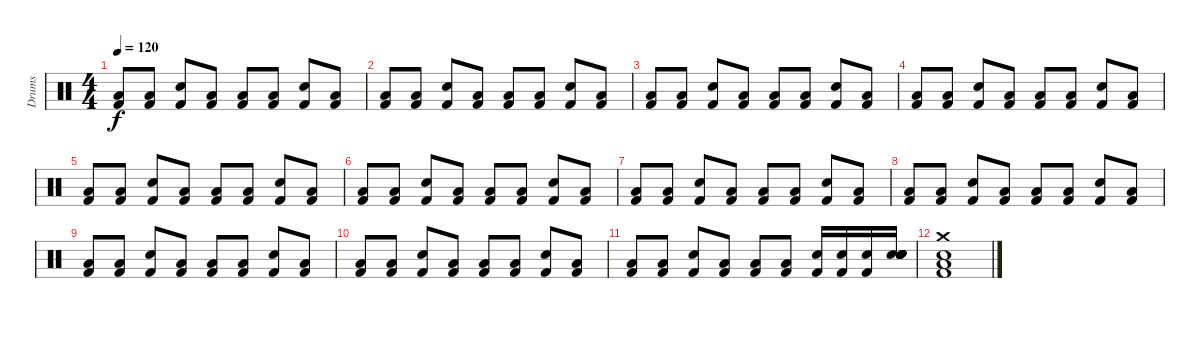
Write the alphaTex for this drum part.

\track ("Drums" "Drums") {instrument percussion}
\staff {score}
\articulation defaults
\ts (4 4)
\tempo 120
\clef neutral
\ks c
("Kick (hit) 2" "Low Floor Tom (hit)").8{dy f} ("Kick (hit) 2" "Low Floor Tom (hit)").8 ("Kick (hit) 2" "Snare (hit) 2").8 ("Kick (hit) 2" "Low Floor Tom (hit)").8 ("Kick (hit) 2" "Low Floor Tom (hit)").8 ("Kick (hit) 2" "Low Floor Tom (hit)").8 ("Kick (hit) 2" "Snare (hit) 2").8 ("Kick (hit) 2" "Low Floor Tom (hit)").8 |
("Kick (hit) 2" "Low Floor Tom (hit)").8 ("Kick (hit) 2" "Low Floor Tom (hit)").8 ("Kick (hit) 2" "Snare (hit) 2").8 ("Kick (hit) 2" "Low Floor Tom (hit)").8 ("Kick (hit) 2" "Low Floor Tom (hit)").8 ("Kick (hit) 2" "Low Floor Tom (hit)").8 ("Kick (hit) 2" "Snare (hit) 2").8 ("Kick (hit) 2" "Low Floor Tom (hit)").8 |
("Kick (hit) 2" "Low Floor Tom (hit)").8 ("Kick (hit) 2" "Low Floor Tom (hit)").8 ("Kick (hit) 2" "Snare (hit) 2").8 ("Kick (hit) 2" "Low Floor Tom (hit)").8 ("Kick (hit) 2" "Low Floor Tom (hit)").8 ("Kick (hit) 2" "Low Floor Tom (hit)").8 ("Kick (hit) 2" "Snare (hit) 2").8 ("Kick (hit) 2" "Low Floor Tom (hit)").8 |
("Kick (hit) 2" "Low Floor Tom (hit)").8 ("Kick (hit) 2" "Low Floor Tom (hit)").8 ("Kick (hit) 2" "Snare (hit) 2").8 ("Kick (hit) 2" "Low Floor Tom (hit)").8 ("Kick (hit) 2" "Low Floor Tom (hit)").8 ("Kick (hit) 2" "Low Floor Tom (hit)").8 ("Kick (hit) 2" "Snare (hit) 2").8 ("Kick (hit) 2" "Low Floor Tom (hit)").8 |
("Kick (hit) 2" "Low Floor Tom (hit)").8 ("Kick (hit) 2" "Low Floor Tom (hit)").8 ("Kick (hit) 2" "Snare (hit) 2").8 ("Kick (hit) 2" "Low Floor Tom (hit)").8 ("Kick (hit) 2" "Low Floor Tom (hit)").8 ("Kick (hit) 2" "Low Floor Tom (hit)").8 ("Kick (hit) 2" "Snare (hit) 2").8 ("Kick (hit) 2" "Low Floor Tom (hit)").8 |
("Kick (hit) 2" "Low Floor Tom (hit)").8 ("Kick (hit) 2" "Low Floor Tom (hit)").8 ("Kick (hit) 2" "Snare (hit) 2").8 ("Kick (hit) 2" "Low Floor Tom (hit)").8 ("Kick (hit) 2" "Low Floor Tom (hit)").8 ("Kick (hit) 2" "Low Floor Tom (hit)").8 ("Kick (hit) 2" "Snare (hit) 2").8 ("Kick (hit) 2" "Low Floor Tom (hit)").8 |
("Kick (hit) 2" "Low Floor Tom (hit)").8 ("Kick (hit) 2" "Low Floor Tom (hit)").8 ("Kick (hit) 2" "Snare (hit) 2").8 ("Kick (hit) 2" "Low Floor Tom (hit)").8 ("Kick (hit) 2" "Low Floor Tom (hit)").8 ("Kick (hit) 2" "Low Floor Tom (hit)").8 ("Kick (hit) 2" "Snare (hit) 2").8 ("Kick (hit) 2" "Low Floor Tom (hit)").8 |
("Kick (hit) 2" "Low Floor Tom (hit)").8 ("Kick (hit) 2" "Low Floor Tom (hit)").8 ("Kick (hit) 2" "Snare (hit) 2").8 ("Kick (hit) 2" "Low Floor Tom (hit)").8 ("Kick (hit) 2" "Low Floor Tom (hit)").8 ("Kick (hit) 2" "Low Floor Tom (hit)").8 ("Kick (hit) 2" "Snare (hit) 2").8 ("Kick (hit) 2" "Low Floor Tom (hit)").8 |
("Kick (hit) 2" "Low Floor Tom (hit)").8 ("Kick (hit) 2" "Low Floor Tom (hit)").8 ("Kick (hit) 2" "Snare (hit) 2").8 ("Kick (hit) 2" "Low Floor Tom (hit)").8 ("Kick (hit) 2" "Low Floor Tom (hit)").8 ("Kick (hit) 2" "Low Floor Tom (hit)").8 ("Kick (hit) 2" "Snare (hit) 2").8 ("Kick (hit) 2" "Low Floor Tom (hit)").8 |
("Kick (hit) 2" "Low Floor Tom (hit)").8 ("Kick (hit) 2" "Low Floor Tom (hit)").8 ("Kick (hit) 2" "Snare (hit) 2").8 ("Kick (hit) 2" "Low Floor Tom (hit)").8 ("Kick (hit) 2" "Low Floor Tom (hit)").8 ("Kick (hit) 2" "Low Floor Tom (hit)").8 ("Kick (hit) 2" "Snare (hit) 2").8 ("Kick (hit) 2" "Low Floor Tom (hit)").8 |
("Kick (hit) 2" "Low Floor Tom (hit)").8 ("Kick (hit) 2" "Low Floor Tom (hit)").8 ("Kick (hit) 2" "Snare (hit) 2").8 ("Kick (hit) 2" "Low Floor Tom (hit)").8 ("Kick (hit) 2" "Low Floor Tom (hit)").8 ("Kick (hit) 2" "Low Floor Tom (hit)").8 ("Kick (hit) 2" "Snare (hit) 2").16 ("Kick (hit) 2" "Snare (hit) 2").16 ("Kick (hit) 2" "Snare (hit) 2").16 ("Snare (hit)"{x} "Snare (hit)"{x} "Snare (hit)"{x} "Snare (hit)"{x} "Snare (hit)"{x} "Snare (hit)"{x}).16 |
("Kick (hit) 2" "Low Floor Tom (hit)" "Crash medium (hit)" "Snare (hit) 2").1
